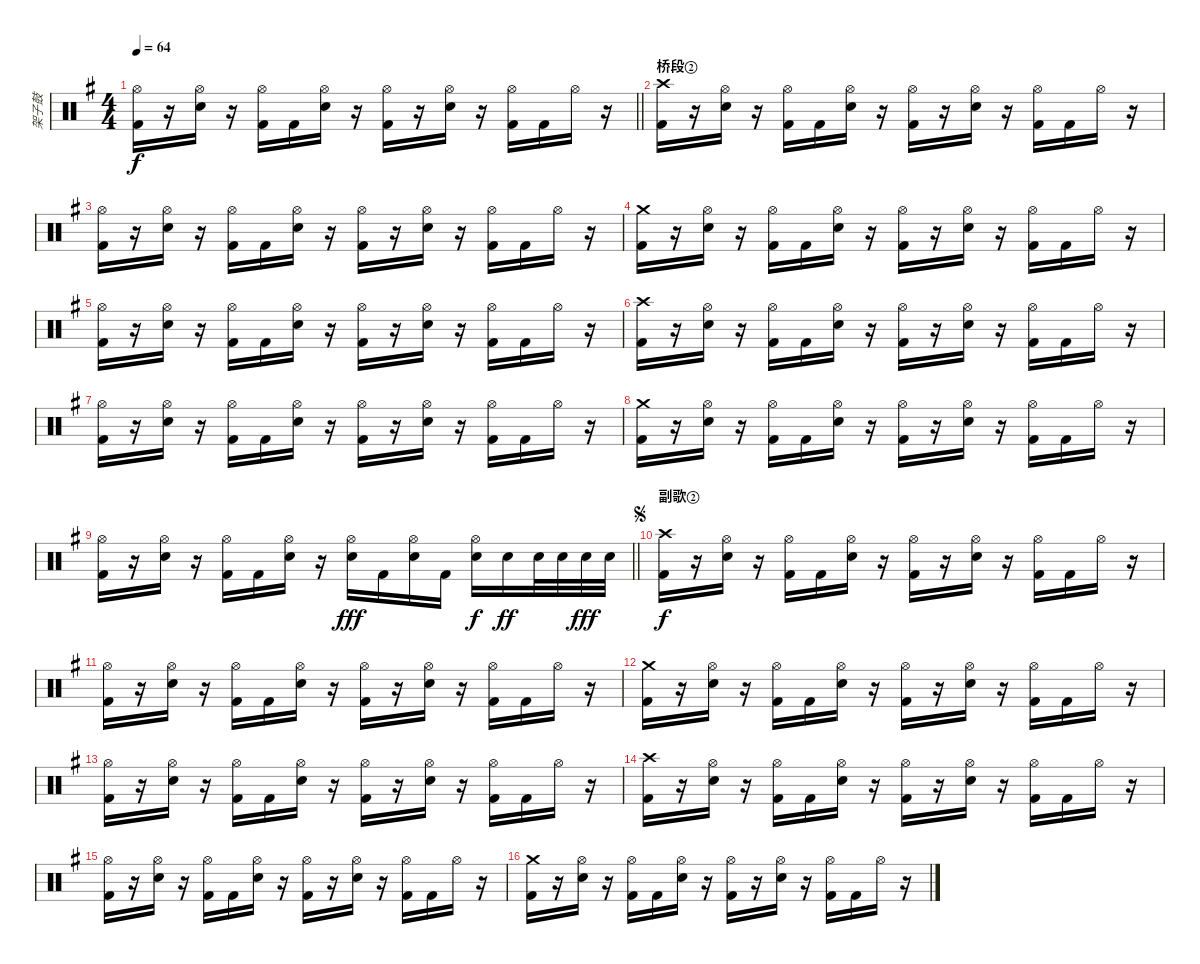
\track ("架子鼓" "架子鼓") {instrument percussion}
\staff {score}
\articulation defaults
\ts (4 4)
\tempo 64
\clef neutral
\barLineRight lightlight
\ks g
("Hi-Hat (open)" "Kick (hit) 2").16{dy f} r.16 ("Hi-Hat (open)" "Electric Snare (hit)").16 r.16 ("Hi-Hat (open)" "Kick (hit) 2").16 "Kick (hit) 2".16 ("Hi-Hat (open)" "Electric Snare (hit)").16 r.16 ("Hi-Hat (open)" "Kick (hit) 2").16 r.16 ("Hi-Hat (open)" "Electric Snare (hit)").16 r.16 ("Hi-Hat (open)" "Kick (hit) 2").16 "Kick (hit) 2".16 "Hi-Hat (open)".16 r.16 |
\section ("" "桥段②")
("Crash high (hit)" "Kick (hit) 2").16 r.16 ("Hi-Hat (open)" "Electric Snare (hit)").16 r.16 ("Hi-Hat (open)" "Kick (hit) 2").16 "Kick (hit) 2".16 ("Hi-Hat (open)" "Electric Snare (hit)").16 r.16 ("Hi-Hat (open)" "Kick (hit) 2").16 r.16 ("Hi-Hat (open)" "Electric Snare (hit)").16 r.16 ("Hi-Hat (open)" "Kick (hit) 2").16 "Kick (hit) 2".16 "Hi-Hat (open)".16 r.16 |
("Hi-Hat (open)" "Kick (hit) 2").16 r.16 ("Hi-Hat (open)" "Electric Snare (hit)").16 r.16 ("Hi-Hat (open)" "Kick (hit) 2").16 "Kick (hit) 2".16 ("Hi-Hat (open)" "Electric Snare (hit)").16 r.16 ("Hi-Hat (open)" "Kick (hit) 2").16 r.16 ("Hi-Hat (open)" "Electric Snare (hit)").16 r.16 ("Hi-Hat (open)" "Kick (hit) 2").16 "Kick (hit) 2".16 "Hi-Hat (open)".16 r.16 |
("Crash medium (hit)" "Kick (hit) 2").16 r.16 ("Hi-Hat (open)" "Electric Snare (hit)").16 r.16 ("Hi-Hat (open)" "Kick (hit) 2").16 "Kick (hit) 2".16 ("Hi-Hat (open)" "Electric Snare (hit)").16 r.16 ("Hi-Hat (open)" "Kick (hit) 2").16 r.16 ("Hi-Hat (open)" "Electric Snare (hit)").16 r.16 ("Hi-Hat (open)" "Kick (hit) 2").16 "Kick (hit) 2".16 "Hi-Hat (open)".16 r.16 |
("Hi-Hat (open)" "Kick (hit) 2").16 r.16 ("Hi-Hat (open)" "Electric Snare (hit)").16 r.16 ("Hi-Hat (open)" "Kick (hit) 2").16 "Kick (hit) 2".16 ("Hi-Hat (open)" "Electric Snare (hit)").16 r.16 ("Hi-Hat (open)" "Kick (hit) 2").16 r.16 ("Hi-Hat (open)" "Electric Snare (hit)").16 r.16 ("Hi-Hat (open)" "Kick (hit) 2").16 "Kick (hit) 2".16 "Hi-Hat (open)".16 r.16 |
("Crash high (hit)" "Kick (hit) 2").16 r.16 ("Hi-Hat (open)" "Electric Snare (hit)").16 r.16 ("Hi-Hat (open)" "Kick (hit) 2").16 "Kick (hit) 2".16 ("Hi-Hat (open)" "Electric Snare (hit)").16 r.16 ("Hi-Hat (open)" "Kick (hit) 2").16 r.16 ("Hi-Hat (open)" "Electric Snare (hit)").16 r.16 ("Hi-Hat (open)" "Kick (hit) 2").16 "Kick (hit) 2".16 "Hi-Hat (open)".16 r.16 |
("Hi-Hat (open)" "Kick (hit) 2").16 r.16 ("Hi-Hat (open)" "Electric Snare (hit)").16 r.16 ("Hi-Hat (open)" "Kick (hit) 2").16 "Kick (hit) 2".16 ("Hi-Hat (open)" "Electric Snare (hit)").16 r.16 ("Hi-Hat (open)" "Kick (hit) 2").16 r.16 ("Hi-Hat (open)" "Electric Snare (hit)").16 r.16 ("Hi-Hat (open)" "Kick (hit) 2").16 "Kick (hit) 2".16 "Hi-Hat (open)".16 r.16 |
("Crash medium (hit)" "Kick (hit) 2").16 r.16 ("Hi-Hat (open)" "Electric Snare (hit)").16 r.16 ("Hi-Hat (open)" "Kick (hit) 2").16 "Kick (hit) 2".16 ("Hi-Hat (open)" "Electric Snare (hit)").16 r.16 ("Hi-Hat (open)" "Kick (hit) 2").16 r.16 ("Hi-Hat (open)" "Electric Snare (hit)").16 r.16 ("Hi-Hat (open)" "Kick (hit) 2").16 "Kick (hit) 2".16 "Hi-Hat (open)".16 r.16 |
\barLineRight lightlight
("Hi-Hat (open)" "Kick (hit) 2").16 r.16 ("Hi-Hat (open)" "Electric Snare (hit)").16 r.16 ("Hi-Hat (open)" "Kick (hit) 2").16 "Kick (hit) 2".16 ("Hi-Hat (open)" "Electric Snare (hit)").16 r.16 ("Hi-Hat (open)" "Electric Snare (hit)").16{dy fff} "Kick (hit) 2".16 ("Hi-Hat (open)" "Electric Snare (hit)").16 "Kick (hit) 2".16 ("Hi-Hat (open)" "Electric Snare (hit)").16{dy f} "Electric Snare (hit)".16{dy ff} "Electric Snare (hit)".32 "Electric Snare (hit)".32 "Electric Snare (hit)".32{dy fff} "Electric Snare (hit)".32 |
\section ("" "副歌②")
\jump segno
("Crash high (hit)" "Kick (hit) 2").16{dy f} r.16 ("Hi-Hat (open)" "Electric Snare (hit)").16 r.16 ("Hi-Hat (open)" "Kick (hit) 2").16 "Kick (hit) 2".16 ("Hi-Hat (open)" "Electric Snare (hit)").16 r.16 ("Hi-Hat (open)" "Kick (hit) 2").16 r.16 ("Hi-Hat (open)" "Electric Snare (hit)").16 r.16 ("Hi-Hat (open)" "Kick (hit) 2").16 "Kick (hit) 2".16 "Hi-Hat (open)".16 r.16 |
("Hi-Hat (open)" "Kick (hit) 2").16 r.16 ("Hi-Hat (open)" "Electric Snare (hit)").16 r.16 ("Hi-Hat (open)" "Kick (hit) 2").16 "Kick (hit) 2".16 ("Hi-Hat (open)" "Electric Snare (hit)").16 r.16 ("Hi-Hat (open)" "Kick (hit) 2").16 r.16 ("Hi-Hat (open)" "Electric Snare (hit)").16 r.16 ("Hi-Hat (open)" "Kick (hit) 2").16 "Kick (hit) 2".16 "Hi-Hat (open)".16 r.16 |
("Crash medium (hit)" "Kick (hit) 2").16 r.16 ("Hi-Hat (open)" "Electric Snare (hit)").16 r.16 ("Hi-Hat (open)" "Kick (hit) 2").16 "Kick (hit) 2".16 ("Hi-Hat (open)" "Electric Snare (hit)").16 r.16 ("Hi-Hat (open)" "Kick (hit) 2").16 r.16 ("Hi-Hat (open)" "Electric Snare (hit)").16 r.16 ("Hi-Hat (open)" "Kick (hit) 2").16 "Kick (hit) 2".16 "Hi-Hat (open)".16 r.16 |
("Hi-Hat (open)" "Kick (hit) 2").16 r.16 ("Hi-Hat (open)" "Electric Snare (hit)").16 r.16 ("Hi-Hat (open)" "Kick (hit) 2").16 "Kick (hit) 2".16 ("Hi-Hat (open)" "Electric Snare (hit)").16 r.16 ("Hi-Hat (open)" "Kick (hit) 2").16 r.16 ("Hi-Hat (open)" "Electric Snare (hit)").16 r.16 ("Hi-Hat (open)" "Kick (hit) 2").16 "Kick (hit) 2".16 "Hi-Hat (open)".16 r.16 |
("Crash high (hit)" "Kick (hit) 2").16 r.16 ("Hi-Hat (open)" "Electric Snare (hit)").16 r.16 ("Hi-Hat (open)" "Kick (hit) 2").16 "Kick (hit) 2".16 ("Hi-Hat (open)" "Electric Snare (hit)").16 r.16 ("Hi-Hat (open)" "Kick (hit) 2").16 r.16 ("Hi-Hat (open)" "Electric Snare (hit)").16 r.16 ("Hi-Hat (open)" "Kick (hit) 2").16 "Kick (hit) 2".16 "Hi-Hat (open)".16 r.16 |
("Hi-Hat (open)" "Kick (hit) 2").16 r.16 ("Hi-Hat (open)" "Electric Snare (hit)").16 r.16 ("Hi-Hat (open)" "Kick (hit) 2").16 "Kick (hit) 2".16 ("Hi-Hat (open)" "Electric Snare (hit)").16 r.16 ("Hi-Hat (open)" "Kick (hit) 2").16 r.16 ("Hi-Hat (open)" "Electric Snare (hit)").16 r.16 ("Hi-Hat (open)" "Kick (hit) 2").16 "Kick (hit) 2".16 "Hi-Hat (open)".16 r.16 |
("Crash medium (hit)" "Kick (hit) 2").16 r.16 ("Hi-Hat (open)" "Electric Snare (hit)").16 r.16 ("Hi-Hat (open)" "Kick (hit) 2").16 "Kick (hit) 2".16 ("Hi-Hat (open)" "Electric Snare (hit)").16 r.16 ("Hi-Hat (open)" "Kick (hit) 2").16 r.16 ("Hi-Hat (open)" "Electric Snare (hit)").16 r.16 ("Hi-Hat (open)" "Kick (hit) 2").16 "Kick (hit) 2".16 "Hi-Hat (open)".16 r.16
